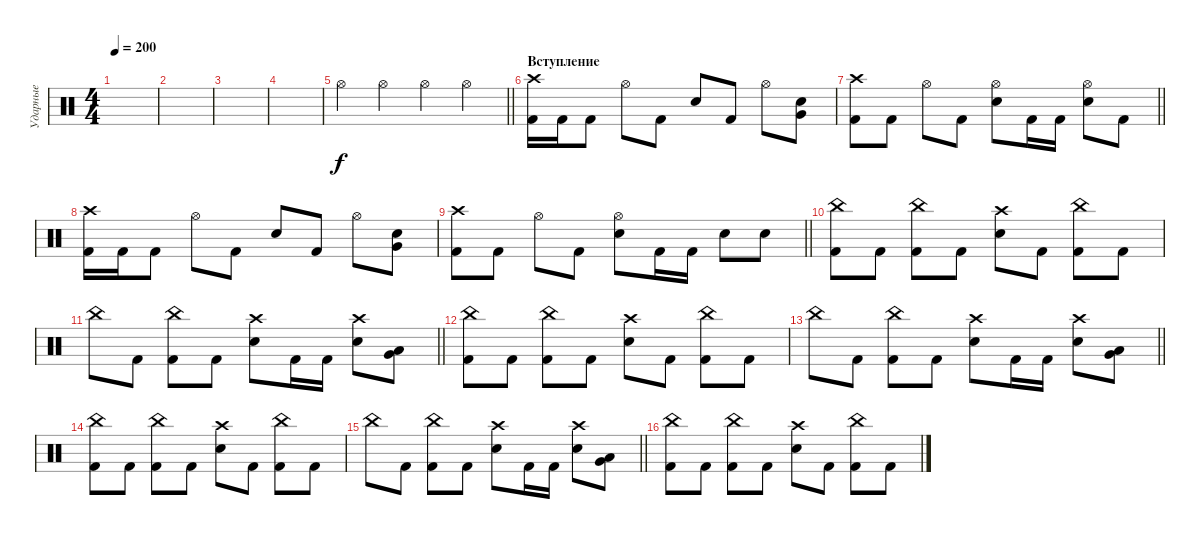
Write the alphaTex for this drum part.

\track ("Ударные" "Ударные") {instrument percussion}
\staff {score}
\articulation defaults
\ts (4 4)
\tempo 200
\clef neutral
\ks c
|
|
|
|
\barLineRight lightlight "Hi-Hat (open)".4 "Hi-Hat (open)".4 "Hi-Hat (open)".4 "Hi-Hat (open)".4
|
\section ("" "Вступление")
("Kick (hit) 2" "Crash high (hit)").16 "Kick (hit) 2".16 "Kick (hit) 2".8 "Hi-Hat (open)".8 "Kick (hit) 2".8 "Electric Snare (hit)".8 "Kick (hit) 2".8 "Hi-Hat (open)".8 ("Very Low Tom (hit)" "Electric Snare (hit)").8 |
\barLineRight lightlight
("Kick (hit) 2" "Crash high (hit)").8 "Kick (hit) 2".8 "Hi-Hat (open)".8 "Kick (hit) 2".8 ("Hi-Hat (open)" "Electric Snare (hit)").8 "Kick (hit) 2".16 "Kick (hit) 2".16 ("Hi-Hat (open)" "Electric Snare (hit)").8 "Kick (hit) 2".8 |
("Kick (hit) 2" "Crash high (hit)").16 "Kick (hit) 2".16 "Kick (hit) 2".8 "Hi-Hat (open)".8 "Kick (hit) 2".8 "Electric Snare (hit)".8 "Kick (hit) 2".8 "Hi-Hat (open)".8 ("Very Low Tom (hit)" "Electric Snare (hit)").8 |
\barLineRight lightlight
("Kick (hit) 2" "Crash high (hit)").8 "Kick (hit) 2".8 "Hi-Hat (open)".8 "Kick (hit) 2".8 ("Hi-Hat (open)" "Electric Snare (hit)").8 "Kick (hit) 2".16 "Kick (hit) 2".16 "Electric Snare (hit)".8 "Electric Snare (hit)".8 |
("Kick (hit) 2" "China (hit)").8 "Kick (hit) 2".8 ("Kick (hit) 2" "China (hit)").8 "Kick (hit) 2".8 ("Electric Snare (hit)" "Crash high (hit)").8 "Kick (hit) 2".8 ("Kick (hit) 2" "China (hit)").8 "Kick (hit) 2".8 |
\barLineRight lightlight "China (hit)".8 "Kick (hit) 2".8
("Kick (hit) 2" "China (hit)").8 "Kick (hit) 2".8 ("Crash high (hit)" "Electric Snare (hit)").8 "Kick (hit) 2".16 "Kick (hit) 2".16 ("Crash high (hit)" "Electric Snare (hit)").8 ("Low Floor Tom (hit)" "Very Low Tom (hit)").8 |
("Kick (hit) 2" "China (hit)").8 "Kick (hit) 2".8 ("Kick (hit) 2" "China (hit)").8 "Kick (hit) 2".8 ("Electric Snare (hit)" "Crash high (hit)").8 "Kick (hit) 2".8 ("Kick (hit) 2" "China (hit)").8 "Kick (hit) 2".8 |
\barLineRight lightlight "China (hit)".8 "Kick (hit) 2".8
("Kick (hit) 2" "China (hit)").8 "Kick (hit) 2".8 ("Crash high (hit)" "Electric Snare (hit)").8 "Kick (hit) 2".16 "Kick (hit) 2".16 ("Crash high (hit)" "Electric Snare (hit)").8 ("Low Floor Tom (hit)" "Very Low Tom (hit)").8 |
("Kick (hit) 2" "China (hit)").8 "Kick (hit) 2".8 ("Kick (hit) 2" "China (hit)").8 "Kick (hit) 2".8 ("Electric Snare (hit)" "Crash high (hit)").8 "Kick (hit) 2".8 ("Kick (hit) 2" "China (hit)").8 "Kick (hit) 2".8 |
\barLineRight lightlight "China (hit)".8 "Kick (hit) 2".8
("Kick (hit) 2" "China (hit)").8 "Kick (hit) 2".8 ("Crash high (hit)" "Electric Snare (hit)").8 "Kick (hit) 2".16 "Kick (hit) 2".16 ("Crash high (hit)" "Electric Snare (hit)").8 ("Low Floor Tom (hit)" "Very Low Tom (hit)").8 |
("Kick (hit) 2" "China (hit)").8 "Kick (hit) 2".8 ("Kick (hit) 2" "China (hit)").8 "Kick (hit) 2".8 ("Electric Snare (hit)" "Crash high (hit)").8 "Kick (hit) 2".8 ("Kick (hit) 2" "China (hit)").8 "Kick (hit) 2".8
